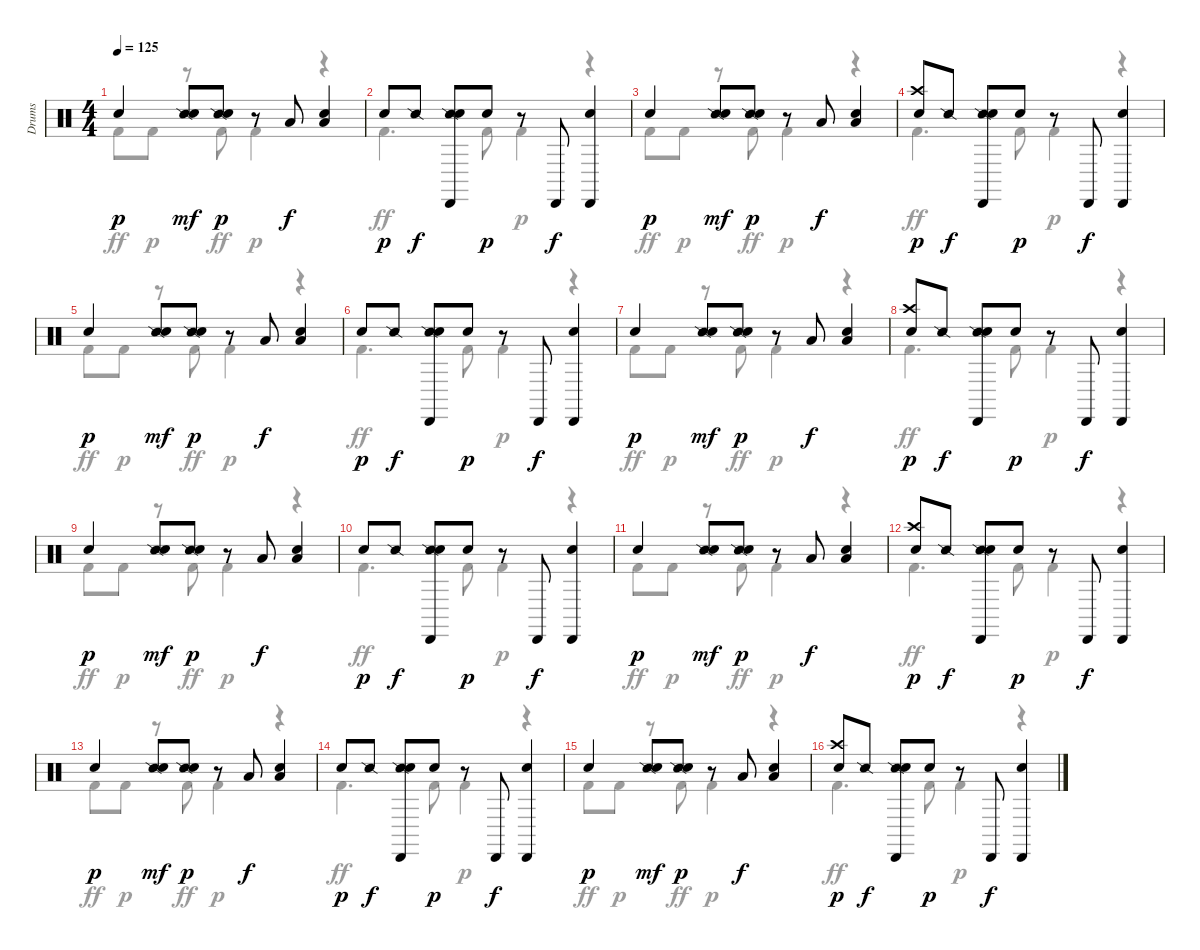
\track ("Drums" "Drums") {instrument percussion}
\staff {score}
\articulation defaults
\voice
\ts (4 4)
\tempo 125
\clef neutral
\ks c "Hand Clap (hit)".4{dy p}
("Snare (side stick) 2" "Snare (hit) 2").8{dy mf} ("Snare (side stick) 2" "Hand Clap (hit)").8{dy p} r.8 "Low Tom (hit)".8{dy f} ("Low Tom (hit)" "Snare (hit) 2").4 |
"Hand Clap (hit)".8{dy p} "Snare (side stick) 2".8{dy f} ("Snare (side stick) 2" "Cabasa (hit)" "Snare (hit) 2").8 "Hand Clap (hit)".8{dy p} r.8 "Cabasa (hit)".8{dy f} ("Cabasa (hit)" "Snare (hit) 2").4 |
"Hand Clap (hit)".4{dy p} ("Snare (side stick) 2" "Snare (hit) 2").8{dy mf} ("Snare (side stick) 2" "Hand Clap (hit)").8{dy p} r.8 "Low Tom (hit)".8{dy f} ("Low Tom (hit)" "Snare (hit) 2").4 |
("Crash high (hit)" "Hand Clap (hit)").8{dy p} "Snare (side stick) 2".8{dy f} ("Snare (side stick) 2" "Cabasa (hit)" "Snare (hit) 2").8 "Hand Clap (hit)".8{dy p} r.8 "Cabasa (hit)".8{dy f} ("Cabasa (hit)" "Snare (hit) 2").4 |
"Hand Clap (hit)".4{dy p} ("Snare (side stick) 2" "Snare (hit) 2").8{dy mf} ("Snare (side stick) 2" "Hand Clap (hit)").8{dy p} r.8 "Low Tom (hit)".8{dy f} ("Low Tom (hit)" "Snare (hit) 2").4 |
"Hand Clap (hit)".8{dy p} "Snare (side stick) 2".8{dy f} ("Snare (side stick) 2" "Cabasa (hit)" "Snare (hit) 2").8 "Hand Clap (hit)".8{dy p} r.8 "Cabasa (hit)".8{dy f} ("Cabasa (hit)" "Snare (hit) 2").4 |
"Hand Clap (hit)".4{dy p} ("Snare (side stick) 2" "Snare (hit) 2").8{dy mf} ("Snare (side stick) 2" "Hand Clap (hit)").8{dy p} r.8 "Low Tom (hit)".8{dy f} ("Low Tom (hit)" "Snare (hit) 2").4 |
("Crash high (hit)" "Hand Clap (hit)").8{dy p} "Snare (side stick) 2".8{dy f} ("Snare (side stick) 2" "Cabasa (hit)" "Snare (hit) 2").8 "Hand Clap (hit)".8{dy p} r.8 "Cabasa (hit)".8{dy f} ("Cabasa (hit)" "Snare (hit) 2").4 |
"Hand Clap (hit)".4{dy p} ("Snare (side stick) 2" "Snare (hit) 2").8{dy mf} ("Snare (side stick) 2" "Hand Clap (hit)").8{dy p} r.8 "Low Tom (hit)".8{dy f} ("Low Tom (hit)" "Snare (hit) 2").4 |
"Hand Clap (hit)".8{dy p} "Snare (side stick) 2".8{dy f} ("Snare (side stick) 2" "Cabasa (hit)" "Snare (hit) 2").8 "Hand Clap (hit)".8{dy p} r.8 "Cabasa (hit)".8{dy f} ("Cabasa (hit)" "Snare (hit) 2").4 |
"Hand Clap (hit)".4{dy p} ("Snare (side stick) 2" "Snare (hit) 2").8{dy mf} ("Snare (side stick) 2" "Hand Clap (hit)").8{dy p} r.8 "Low Tom (hit)".8{dy f} ("Low Tom (hit)" "Snare (hit) 2").4 |
("Crash high (hit)" "Hand Clap (hit)").8{dy p} "Snare (side stick) 2".8{dy f} ("Snare (side stick) 2" "Cabasa (hit)" "Snare (hit) 2").8 "Hand Clap (hit)".8{dy p} r.8 "Cabasa (hit)".8{dy f} ("Cabasa (hit)" "Snare (hit) 2").4 |
"Hand Clap (hit)".4{dy p} ("Snare (side stick) 2" "Snare (hit) 2").8{dy mf} ("Snare (side stick) 2" "Hand Clap (hit)").8{dy p} r.8 "Low Tom (hit)".8{dy f} ("Low Tom (hit)" "Snare (hit) 2").4 |
"Hand Clap (hit)".8{dy p} "Snare (side stick) 2".8{dy f} ("Snare (side stick) 2" "Cabasa (hit)" "Snare (hit) 2").8 "Hand Clap (hit)".8{dy p} r.8 "Cabasa (hit)".8{dy f} ("Cabasa (hit)" "Snare (hit) 2").4 |
"Hand Clap (hit)".4{dy p} ("Snare (side stick) 2" "Snare (hit) 2").8{dy mf} ("Snare (side stick) 2" "Hand Clap (hit)").8{dy p} r.8 "Low Tom (hit)".8{dy f} ("Low Tom (hit)" "Snare (hit) 2").4 |
("Crash high (hit)" "Hand Clap (hit)").8{dy p} "Snare (side stick) 2".8{dy f} ("Snare (side stick) 2" "Cabasa (hit)" "Snare (hit) 2").8 "Hand Clap (hit)".8{dy p} r.8 "Cabasa (hit)".8{dy f} ("Cabasa (hit)" "Snare (hit) 2").4
\voice
\clef neutral
\ottava regular
\simile none
\ks c "Kick (hit) 2".8{dy ff} "Kick (hit) 2".8{dy p}
r.8 "Kick (hit) 2".8{dy ff} "Kick (hit) 2".4{dy p} r.4 |
"Kick (hit) 2".4{d dy ff} "Kick (hit) 2".8 "Kick (hit) 2".4{dy p} r.4 |
"Kick (hit) 2".8{dy ff} "Kick (hit) 2".8{dy p} r.8 "Kick (hit) 2".8{dy ff} "Kick (hit) 2".4{dy p} r.4 |
"Kick (hit) 2".4{d dy ff} "Kick (hit) 2".8 "Kick (hit) 2".4{dy p} r.4 |
"Kick (hit) 2".8{dy ff} "Kick (hit) 2".8{dy p} r.8 "Kick (hit) 2".8{dy ff} "Kick (hit) 2".4{dy p} r.4 |
"Kick (hit) 2".4{d dy ff} "Kick (hit) 2".8 "Kick (hit) 2".4{dy p} r.4 |
"Kick (hit) 2".8{dy ff} "Kick (hit) 2".8{dy p} r.8 "Kick (hit) 2".8{dy ff} "Kick (hit) 2".4{dy p} r.4 |
"Kick (hit) 2".4{d dy ff} "Kick (hit) 2".8 "Kick (hit) 2".4{dy p} r.4 |
"Kick (hit) 2".8{dy ff} "Kick (hit) 2".8{dy p} r.8 "Kick (hit) 2".8{dy ff} "Kick (hit) 2".4{dy p} r.4 |
"Kick (hit) 2".4{d dy ff} "Kick (hit) 2".8 "Kick (hit) 2".4{dy p} r.4 |
"Kick (hit) 2".8{dy ff} "Kick (hit) 2".8{dy p} r.8 "Kick (hit) 2".8{dy ff} "Kick (hit) 2".4{dy p} r.4 |
"Kick (hit) 2".4{d dy ff} "Kick (hit) 2".8 "Kick (hit) 2".4{dy p} r.4 |
"Kick (hit) 2".8{dy ff} "Kick (hit) 2".8{dy p} r.8 "Kick (hit) 2".8{dy ff} "Kick (hit) 2".4{dy p} r.4 |
"Kick (hit) 2".4{d dy ff} "Kick (hit) 2".8 "Kick (hit) 2".4{dy p} r.4 |
"Kick (hit) 2".8{dy ff} "Kick (hit) 2".8{dy p} r.8 "Kick (hit) 2".8{dy ff} "Kick (hit) 2".4{dy p} r.4 |
"Kick (hit) 2".4{d dy ff} "Kick (hit) 2".8 "Kick (hit) 2".4{dy p} r.4
